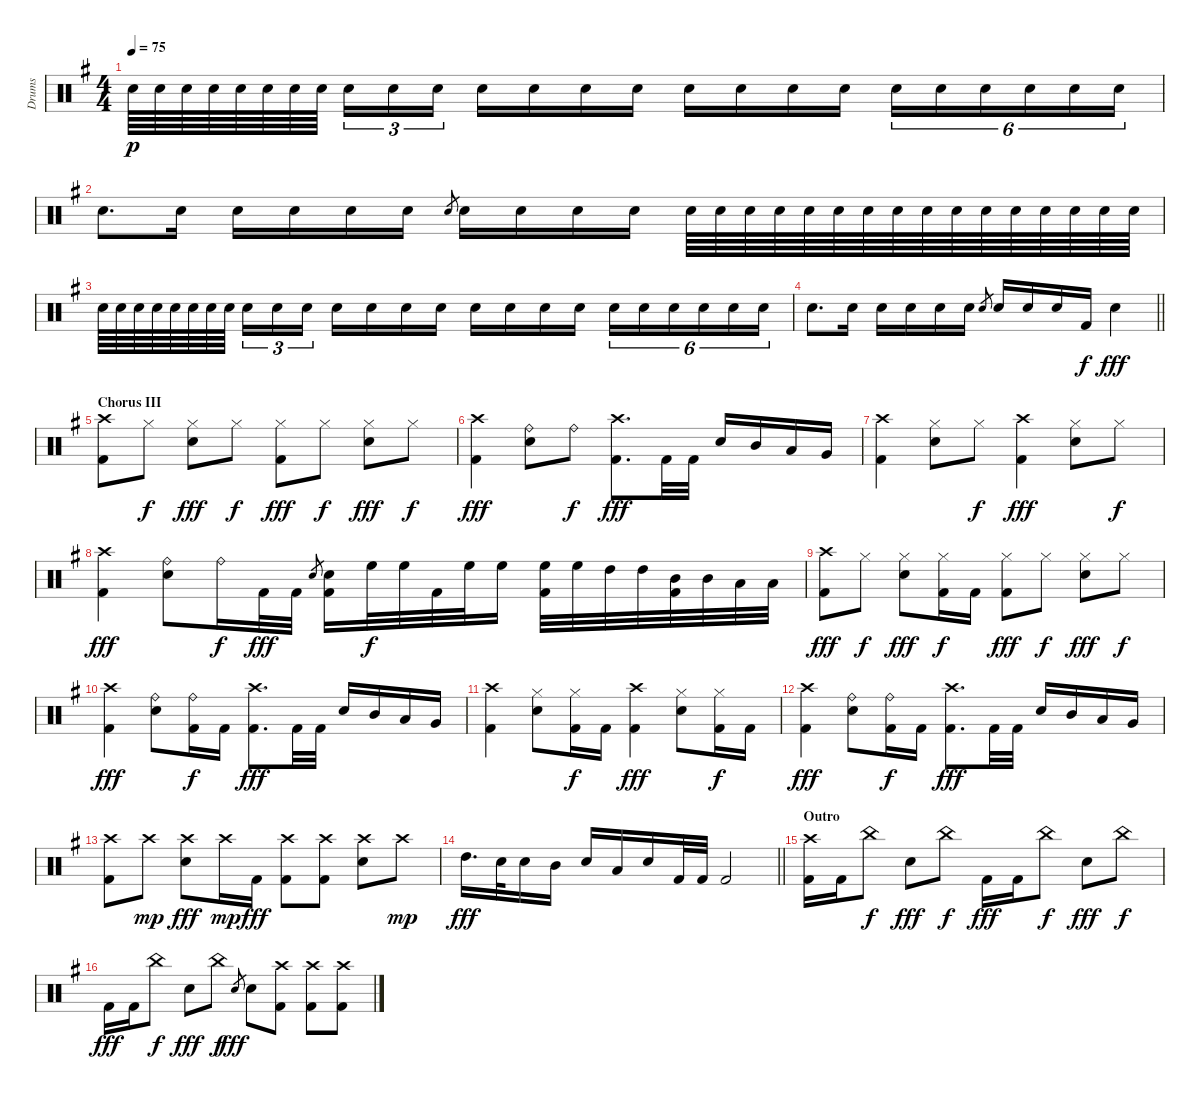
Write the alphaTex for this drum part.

\track ("Drums" "Drums") {instrument percussion}
\staff {score}
\articulation defaults
\ts (4 4)
\tempo 75
\clef neutral
\ks eminor "Electric Snare (hit)".64{dy p} "Electric Snare (hit)".64 "Electric Snare (hit)".64 "Electric Snare (hit)".64 "Electric Snare (hit)".64 "Electric Snare (hit)".64 "Electric Snare (hit)".64 "Electric Snare (hit)".64{beam splitsecondary} "Electric Snare (hit)".16{tu (3 2)} "Electric Snare (hit)".16{tu (3 2)} "Electric Snare (hit)".16{tu (3 2)} "Electric Snare (hit)".16 "Electric Snare (hit)".16 "Electric Snare (hit)".16 "Electric Snare (hit)".16 "Electric Snare (hit)".16 "Electric Snare (hit)".16 "Electric Snare (hit)".16 "Electric Snare (hit)".16 "Electric Snare (hit)".16{tu (6 4)} "Electric Snare (hit)".16{tu (6 4)} "Electric Snare (hit)".16{tu (6 4)} "Electric Snare (hit)".16{tu (6 4)} "Electric Snare (hit)".16{tu (6 4)} "Electric Snare (hit)".16{tu (6 4)}
|
"Electric Snare (hit)".8{d} "Electric Snare (hit)".16 "Electric Snare (hit)".16 "Electric Snare (hit)".16 "Electric Snare (hit)".16 "Electric Snare (hit)".16 "Electric Snare (hit)".8{gr} "Electric Snare (hit)".16 "Electric Snare (hit)".16 "Electric Snare (hit)".16 "Electric Snare (hit)".16 "Electric Snare (hit)".64 "Electric Snare (hit)".64 "Electric Snare (hit)".64 "Electric Snare (hit)".64 "Electric Snare (hit)".64 "Electric Snare (hit)".64 "Electric Snare (hit)".64 "Electric Snare (hit)".64 "Electric Snare (hit)".64 "Electric Snare (hit)".64 "Electric Snare (hit)".64 "Electric Snare (hit)".64 "Electric Snare (hit)".64 "Electric Snare (hit)".64 "Electric Snare (hit)".64 "Electric Snare (hit)".64 |
"Electric Snare (hit)".64 "Electric Snare (hit)".64 "Electric Snare (hit)".64 "Electric Snare (hit)".64 "Electric Snare (hit)".64 "Electric Snare (hit)".64 "Electric Snare (hit)".64 "Electric Snare (hit)".64{beam splitsecondary} "Electric Snare (hit)".16{tu (3 2)} "Electric Snare (hit)".16{tu (3 2)} "Electric Snare (hit)".16{tu (3 2)} "Electric Snare (hit)".16 "Electric Snare (hit)".16 "Electric Snare (hit)".16 "Electric Snare (hit)".16 "Electric Snare (hit)".16 "Electric Snare (hit)".16 "Electric Snare (hit)".16 "Electric Snare (hit)".16 "Electric Snare (hit)".16{tu (6 4)} "Electric Snare (hit)".16{tu (6 4)} "Electric Snare (hit)".16{tu (6 4)} "Electric Snare (hit)".16{tu (6 4)} "Electric Snare (hit)".16{tu (6 4)} "Electric Snare (hit)".16{tu (6 4)} |
\barLineRight lightlight "Electric Snare (hit)".8{d} "Electric Snare (hit)".16 "Electric Snare (hit)".16 "Electric Snare (hit)".16 "Electric Snare (hit)".16 "Electric Snare (hit)".16 "Electric Snare (hit)".8{gr} "Electric Snare (hit)".16 "Electric Snare (hit)".16 "Electric Snare (hit)".16 "Kick (hit) 2".16{dy f} "Snare (hit) 2".4{dy fff}
|
\section ("" "Chorus III")
("Crash high (hit)" "Kick (hit) 2").8 "Hi-Hat (closed)".8{dy f} ("Hi-Hat (closed)" "Snare (hit) 2").8{dy fff} "Hi-Hat (closed)".8{dy f} ("Hi-Hat (closed)" "Kick (hit) 2").8{dy fff} "Hi-Hat (closed)".8{dy f} ("Hi-Hat (closed)" "Snare (hit) 2").8{dy fff} "Hi-Hat (closed)".8{dy f} |
("Crash high (hit)" "Kick (hit) 2").4{dy fff} ("Ride (bell)" "Snare (hit) 2").8 "Ride (bell)".8{dy f} ("Crash high (hit)" "Kick (hit) 2").8{d dy fff} "Kick (hit) 2".32 "Kick (hit) 2".32 "Snare (hit) 2".16 "Mid Tom (hit)".16 "Low Tom (hit)".16 "Very Low Tom (hit)".16 |
("Crash high (hit)" "Kick (hit) 2").4 ("Hi-Hat (closed)" "Snare (hit) 2").8 "Hi-Hat (closed)".8{dy f} ("Crash high (hit)" "Kick (hit) 2").4{dy fff} ("Hi-Hat (closed)" "Snare (hit) 2").8 "Hi-Hat (closed)".8{dy f} |
("Crash high (hit)" "Kick (hit) 2").4{dy fff} ("Ride (bell)" "Snare (hit) 2").8 "Ride (bell)".16{dy f} "Kick (hit) 2".32{dy fff} "Kick (hit) 2".32 "Snare (hit) 2".8{gr} ("Snare (hit) 2" "Kick (hit) 2").16 "High Floor Tom (hit)".32{dy f} "High Floor Tom (hit)".32 "Kick (hit) 2".32 "High Floor Tom (hit)".32 "High Floor Tom (hit)".16 ("High Floor Tom (hit)" "Kick (hit) 2").32 "High Floor Tom (hit)".32 "High Tom (hit)".32 "High Tom (hit)".32 ("Mid Tom (hit)" "Kick (hit) 2").32 "Mid Tom (hit)".32 "Low Tom (hit)".32 "Low Tom (hit)".32 |
("Crash high (hit)" "Kick (hit) 2").8{dy fff} "Hi-Hat (closed)".8{dy f} ("Hi-Hat (closed)" "Snare (hit) 2").8{dy fff} ("Hi-Hat (closed)" "Kick (hit) 2").16{dy f} "Kick (hit) 2".16 ("Hi-Hat (closed)" "Kick (hit) 2").8{dy fff} "Hi-Hat (closed)".8{dy f} ("Hi-Hat (closed)" "Snare (hit) 2").8{dy fff} "Hi-Hat (closed)".8{dy f} |
("Crash high (hit)" "Kick (hit) 2").4{dy fff} ("Ride (bell)" "Snare (hit) 2").8 ("Ride (bell)" "Kick (hit) 2").16{dy f} "Kick (hit) 2".16 ("Crash high (hit)" "Kick (hit) 2").8{d dy fff} "Kick (hit) 2".32 "Kick (hit) 2".32 "Snare (hit) 2".16 "Mid Tom (hit)".16 "Low Tom (hit)".16 "Very Low Tom (hit)".16 |
("Crash high (hit)" "Kick (hit) 2").4 ("Hi-Hat (closed)" "Snare (hit) 2").8 ("Hi-Hat (closed)" "Kick (hit) 2").16{dy f} "Kick (hit) 2".16 ("Crash high (hit)" "Kick (hit) 2").4{dy fff} ("Hi-Hat (closed)" "Snare (hit) 2").8 ("Hi-Hat (closed)" "Kick (hit) 2").16{dy f} "Kick (hit) 2".16 |
("Crash high (hit)" "Kick (hit) 2").4{dy fff} ("Ride (bell)" "Snare (hit) 2").8 ("Ride (bell)" "Kick (hit) 2").16{dy f} "Kick (hit) 2".16 ("Crash high (hit)" "Kick (hit) 2").8{d dy fff} "Kick (hit) 2".32 "Kick (hit) 2".32 "Snare (hit) 2".16 "Mid Tom (hit)".16 "Low Tom (hit)".16 "Very Low Tom (hit)".16 |
("Crash high (hit)" "Kick (hit) 2").8 "Crash high (hit)".8{dy mp} ("Crash high (hit)" "Snare (hit) 2").8{dy fff} "Crash high (hit)".16{dy mp} "Kick (hit) 2".16{dy fff} ("Crash high (hit)" "Kick (hit) 2").8 ("Crash high (hit)" "Kick (hit) 2").8 ("Crash high (hit)" "Snare (hit) 2").8 "Crash high (hit)".8{dy mp} |
\barLineRight lightlight "High Tom (hit)".16{d dy fff} "Snare (hit) 2".32 "Snare (hit) 2".16 "Mid Tom (hit)".16 "Snare (hit) 2".16 "Low Tom (hit)".16 "Snare (hit) 2".16 "Kick (hit) 2".32 "Kick (hit) 2".32 "Kick (hit) 2".2
|
\section ("" "Outro")
("Crash high (hit)" "Kick (hit) 2").16 "Kick (hit) 2".16 "China (hit)".8{dy f} "Snare (hit) 2".8{dy fff} "China (hit)".8{dy f} "Kick (hit) 2".16{dy fff} "Kick (hit) 2".16 "China (hit)".8{dy f} "Snare (hit) 2".8{dy fff} "China (hit)".8{dy f} |
"Kick (hit) 2".16{dy fff} "Kick (hit) 2".16 "China (hit)".8{dy f} "Snare (hit) 2".8{dy fff} "China (hit)".8{dy f} "Snare (hit) 2".8{gr dy fff} "Snare (hit) 2".8 ("Crash high (hit)" "Kick (hit) 2").8 ("Crash high (hit)" "Kick (hit) 2").8 ("Crash high (hit)" "Kick (hit) 2").8
